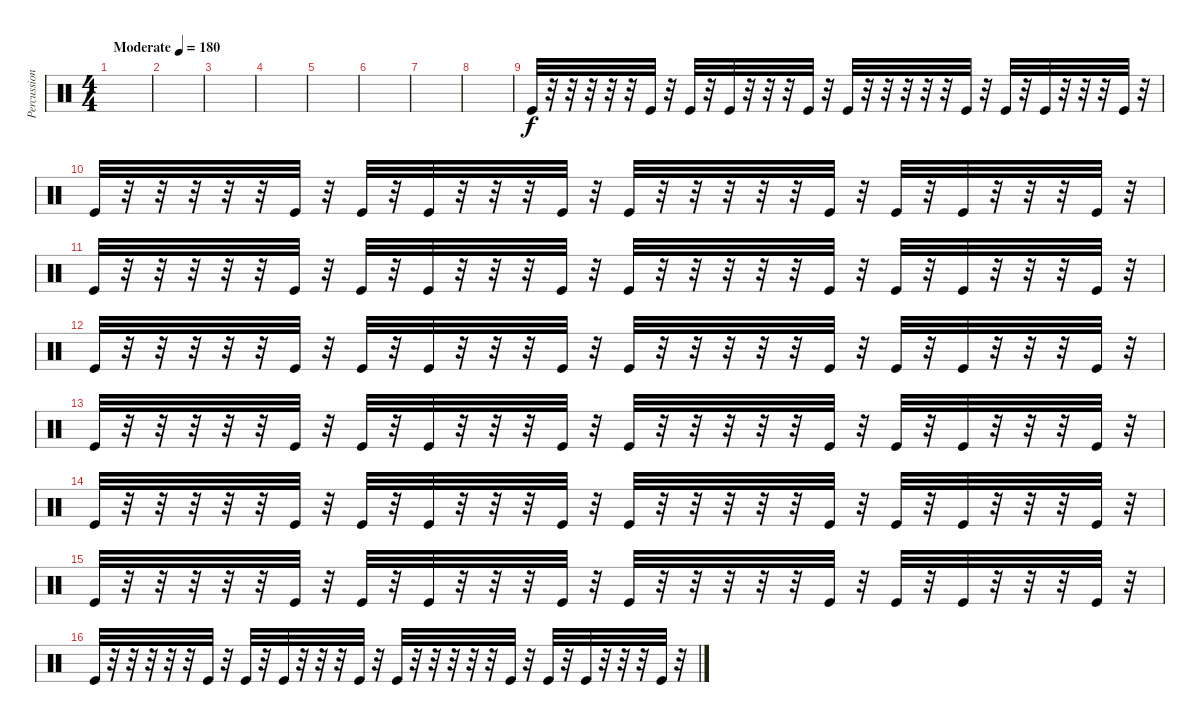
\track ("Percussion" "Percussion") {instrument percussion}
\staff {score}
\articulation defaults
\ts (4 4)
\tempo (180 "Moderate")
\clef neutral
\ks c
|
|
|
|
|
|
|
|
"Kick (hit)".32 r.32 r.32 r.32 r.32 r.32 "Kick (hit)".32 r.32 "Kick (hit)".32 r.32 "Kick (hit)".32 r.32 r.32 r.32 "Kick (hit)".32 r.32 "Kick (hit)".32 r.32 r.32 r.32 r.32 r.32 "Kick (hit)".32 r.32 "Kick (hit)".32 r.32 "Kick (hit)".32 r.32 r.32 r.32 "Kick (hit)".32 r.32 |
"Kick (hit)".32 r.32 r.32 r.32 r.32 r.32 "Kick (hit)".32 r.32 "Kick (hit)".32 r.32 "Kick (hit)".32 r.32 r.32 r.32 "Kick (hit)".32 r.32 "Kick (hit)".32 r.32 r.32 r.32 r.32 r.32 "Kick (hit)".32 r.32 "Kick (hit)".32 r.32 "Kick (hit)".32 r.32 r.32 r.32 "Kick (hit)".32 r.32 |
"Kick (hit)".32 r.32 r.32 r.32 r.32 r.32 "Kick (hit)".32 r.32 "Kick (hit)".32 r.32 "Kick (hit)".32 r.32 r.32 r.32 "Kick (hit)".32 r.32 "Kick (hit)".32 r.32 r.32 r.32 r.32 r.32 "Kick (hit)".32 r.32 "Kick (hit)".32 r.32 "Kick (hit)".32 r.32 r.32 r.32 "Kick (hit)".32 r.32 |
"Kick (hit)".32 r.32 r.32 r.32 r.32 r.32 "Kick (hit)".32 r.32 "Kick (hit)".32 r.32 "Kick (hit)".32 r.32 r.32 r.32 "Kick (hit)".32 r.32 "Kick (hit)".32 r.32 r.32 r.32 r.32 r.32 "Kick (hit)".32 r.32 "Kick (hit)".32 r.32 "Kick (hit)".32 r.32 r.32 r.32 "Kick (hit)".32 r.32 |
"Kick (hit)".32 r.32 r.32 r.32 r.32 r.32 "Kick (hit)".32 r.32 "Kick (hit)".32 r.32 "Kick (hit)".32 r.32 r.32 r.32 "Kick (hit)".32 r.32 "Kick (hit)".32 r.32 r.32 r.32 r.32 r.32 "Kick (hit)".32 r.32 "Kick (hit)".32 r.32 "Kick (hit)".32 r.32 r.32 r.32 "Kick (hit)".32 r.32 |
"Kick (hit)".32 r.32 r.32 r.32 r.32 r.32 "Kick (hit)".32 r.32 "Kick (hit)".32 r.32 "Kick (hit)".32 r.32 r.32 r.32 "Kick (hit)".32 r.32 "Kick (hit)".32 r.32 r.32 r.32 r.32 r.32 "Kick (hit)".32 r.32 "Kick (hit)".32 r.32 "Kick (hit)".32 r.32 r.32 r.32 "Kick (hit)".32 r.32 |
"Kick (hit)".32 r.32 r.32 r.32 r.32 r.32 "Kick (hit)".32 r.32 "Kick (hit)".32 r.32 "Kick (hit)".32 r.32 r.32 r.32 "Kick (hit)".32 r.32 "Kick (hit)".32 r.32 r.32 r.32 r.32 r.32 "Kick (hit)".32 r.32 "Kick (hit)".32 r.32 "Kick (hit)".32 r.32 r.32 r.32 "Kick (hit)".32 r.32 |
"Kick (hit)".32 r.32 r.32 r.32 r.32 r.32 "Kick (hit)".32 r.32 "Kick (hit)".32 r.32 "Kick (hit)".32 r.32 r.32 r.32 "Kick (hit)".32 r.32 "Kick (hit)".32 r.32 r.32 r.32 r.32 r.32 "Kick (hit)".32 r.32 "Kick (hit)".32 r.32 "Kick (hit)".32 r.32 r.32 r.32 "Kick (hit)".32 r.32
